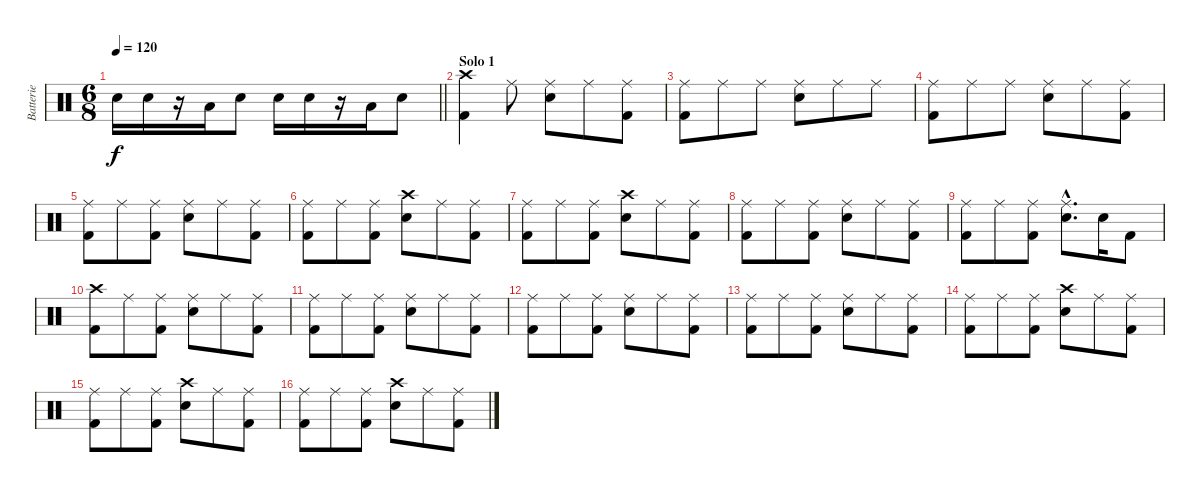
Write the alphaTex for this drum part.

\track ("Batterie" "Batterie") {instrument percussion}
\staff {score}
\articulation defaults
\ts (6 8)
\tempo 120
\clef neutral
\barLineRight lightlight
\ks c "Snare (hit) 2".16{dy f} "Snare (hit) 2".16
r.16 "Low Tom (hit)".16 "Snare (hit) 2".8 "Snare (hit) 2".16 "Snare (hit) 2".16 r.16 "Low Floor Tom (hit)".16 "Snare (hit) 2".8 |
\section ("" "Solo 1")
("Crash high (hit)" "Kick (hit) 2").4 "Ride (middle)".8 ("Ride (middle)" "Snare (hit) 2").8 "Ride (middle)".8 ("Ride (middle)" "Kick (hit) 2").8 |
("Ride (middle)" "Kick (hit) 2").8 "Ride (middle)".8 "Ride (middle)".8 ("Ride (middle)" "Snare (hit) 2").8 "Ride (middle)".8 "Ride (middle)".8 |
("Ride (middle)" "Kick (hit) 2").8 "Ride (middle)".8 "Ride (middle)".8 ("Ride (middle)" "Snare (hit) 2").8 "Ride (middle)".8 ("Ride (middle)" "Kick (hit) 2").8 |
("Ride (middle)" "Kick (hit) 2").8 "Ride (middle)".8 ("Ride (middle)" "Kick (hit) 2").8 ("Ride (middle)" "Snare (hit) 2").8 "Ride (middle)".8 ("Ride (middle)" "Kick (hit) 2").8 |
("Ride (middle)" "Kick (hit) 2").8 "Ride (middle)".8 ("Ride (middle)" "Kick (hit) 2").8 ("Crash high (hit)" "Snare (hit) 2").8 "Ride (middle)".8 ("Ride (middle)" "Kick (hit) 2").8 |
("Ride (middle)" "Kick (hit) 2").8 "Ride (middle)".8 ("Ride (middle)" "Kick (hit) 2").8 ("Crash high (hit)" "Snare (hit) 2").8 "Ride (middle)".8 ("Ride (middle)" "Kick (hit) 2").8 |
("Ride (middle)" "Kick (hit) 2").8 "Ride (middle)".8 ("Ride (middle)" "Kick (hit) 2").8 ("Ride (middle)" "Snare (hit) 2").8 "Ride (middle)".8 ("Ride (middle)" "Kick (hit) 2").8 |
("Ride (middle)" "Kick (hit) 2").8 "Ride (middle)".8 ("Ride (middle)" "Kick (hit) 2").8 ("Ride (middle)"{hac} "Snare (hit) 2"{hac}).8{d} "Snare (hit) 2".16 "Kick (hit) 2".8 |
("Crash high (hit)" "Kick (hit) 2").8 "Ride (middle)".8 ("Ride (middle)" "Kick (hit) 2").8 ("Ride (middle)" "Snare (hit) 2").8 "Ride (middle)".8 ("Ride (middle)" "Kick (hit) 2").8 |
("Ride (middle)" "Kick (hit) 2").8 "Ride (middle)".8 ("Ride (middle)" "Kick (hit) 2").8 ("Ride (middle)" "Snare (hit) 2").8 "Ride (middle)".8 ("Ride (middle)" "Kick (hit) 2").8 |
("Ride (middle)" "Kick (hit) 2").8 "Ride (middle)".8 ("Ride (middle)" "Kick (hit) 2").8 ("Ride (middle)" "Snare (hit) 2").8 "Ride (middle)".8 ("Ride (middle)" "Kick (hit) 2").8 |
("Ride (middle)" "Kick (hit) 2").8 "Ride (middle)".8 ("Ride (middle)" "Kick (hit) 2").8 ("Ride (middle)" "Snare (hit) 2").8 "Ride (middle)".8 ("Ride (middle)" "Kick (hit) 2").8 |
("Ride (middle)" "Kick (hit) 2").8 "Ride (middle)".8 ("Ride (middle)" "Kick (hit) 2").8 ("Crash high (hit)" "Snare (hit) 2").8 "Ride (middle)".8 ("Ride (middle)" "Kick (hit) 2").8 |
("Ride (middle)" "Kick (hit) 2").8 "Ride (middle)".8 ("Ride (middle)" "Kick (hit) 2").8 ("Crash high (hit)" "Snare (hit) 2").8 "Ride (middle)".8 ("Ride (middle)" "Kick (hit) 2").8 |
("Ride (middle)" "Kick (hit) 2").8 "Ride (middle)".8 ("Ride (middle)" "Kick (hit) 2").8 ("Crash high (hit)" "Snare (hit) 2").8 "Ride (middle)".8 ("Ride (middle)" "Kick (hit) 2").8
